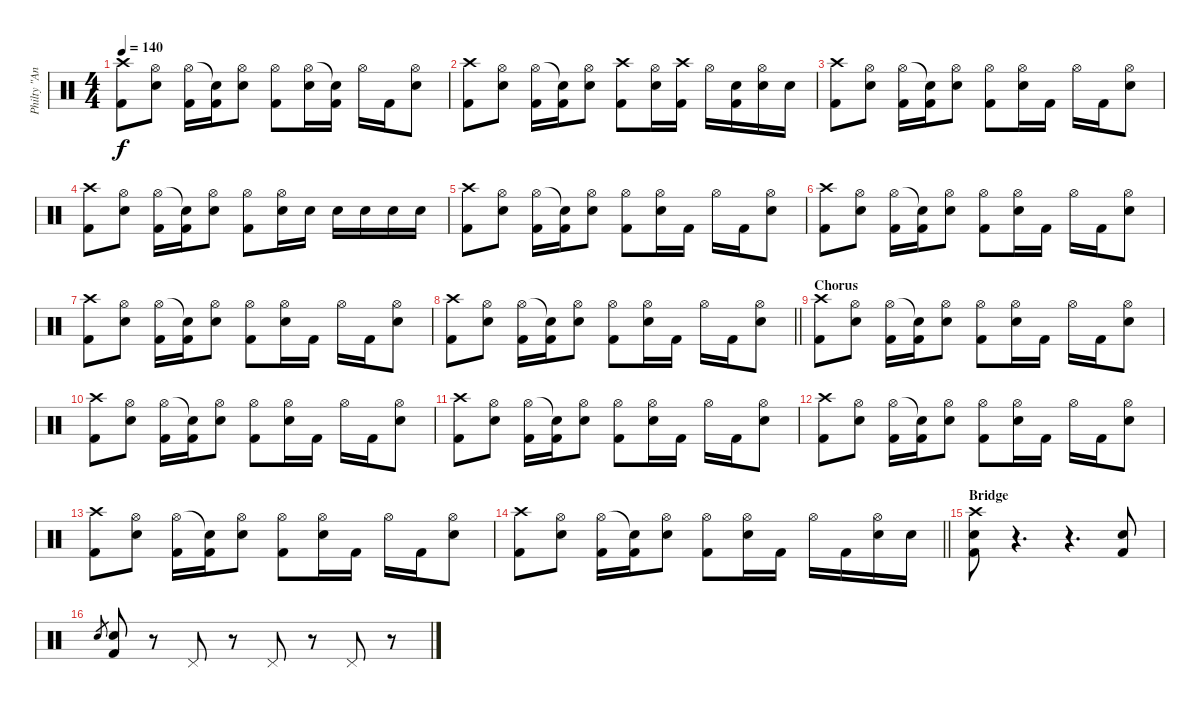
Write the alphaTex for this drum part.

\track ("Philty \"Animal\" Taylor (Drums)" "Philty \"An") {instrument percussion}
\staff {score}
\articulation defaults
\ts (4 4)
\tempo 140
\clef neutral
\ks c
("Crash high (hit)" "Kick (hit) 2").8{dy f} ("Hi-Hat (open)" "Electric Snare (hit)").8 ("Hi-Hat (open)" "Kick (hit) 2").16 ("Snare (hit)"{t} "Kick (hit) 2").16 ("Hi-Hat (open)" "Electric Snare (hit)").8 ("Hi-Hat (open)" "Kick (hit) 2").8 ("Hi-Hat (open)" "Electric Snare (hit)").16 ("Snare (hit)"{t} "Kick (hit) 2").16 "Hi-Hat (open)".16 "Kick (hit) 2".16 ("Hi-Hat (open)" "Electric Snare (hit)").8 |
("Crash high (hit)" "Kick (hit) 2").8 ("Hi-Hat (open)" "Electric Snare (hit)").8 ("Hi-Hat (open)" "Kick (hit) 2").16 ("Snare (hit)"{t} "Kick (hit) 2").16 ("Hi-Hat (open)" "Electric Snare (hit)").8 ("Crash high (hit)" "Kick (hit) 2").8 ("Hi-Hat (open)" "Electric Snare (hit)").16 ("Crash high (hit)" "Kick (hit) 2").16 "Hi-Hat (open)".16 ("Electric Snare (hit)" "Kick (hit) 2").16 ("Hi-Hat (open)" "Electric Snare (hit)").16 "Electric Snare (hit)".16 |
("Crash high (hit)" "Kick (hit) 2").8 ("Hi-Hat (open)" "Electric Snare (hit)").8 ("Hi-Hat (open)" "Kick (hit) 2").16 ("Snare (hit)"{t} "Kick (hit) 2").16 ("Hi-Hat (open)" "Electric Snare (hit)").8 ("Hi-Hat (open)" "Kick (hit) 2").8 ("Hi-Hat (open)" "Electric Snare (hit)").16 "Kick (hit) 2".16 "Hi-Hat (open)".16 "Kick (hit) 2".16 ("Hi-Hat (open)" "Electric Snare (hit)").8 |
("Crash high (hit)" "Kick (hit) 2").8 ("Hi-Hat (open)" "Electric Snare (hit)").8 ("Hi-Hat (open)" "Kick (hit) 2").16 ("Snare (hit)"{t} "Kick (hit) 2").16 ("Hi-Hat (open)" "Electric Snare (hit)").8 ("Hi-Hat (open)" "Kick (hit) 2").8 ("Hi-Hat (open)" "Electric Snare (hit)").16 "Electric Snare (hit)".16 "Electric Snare (hit)".16 "Electric Snare (hit)".16 "Electric Snare (hit)".16 "Electric Snare (hit)".16 |
("Crash high (hit)" "Kick (hit) 2").8 ("Hi-Hat (open)" "Electric Snare (hit)").8 ("Hi-Hat (open)" "Kick (hit) 2").16 ("Snare (hit)"{t} "Kick (hit) 2").16 ("Hi-Hat (open)" "Electric Snare (hit)").8 ("Hi-Hat (open)" "Kick (hit) 2").8 ("Hi-Hat (open)" "Electric Snare (hit)").16 "Kick (hit) 2".16 "Hi-Hat (open)".16 "Kick (hit) 2".16 ("Hi-Hat (open)" "Electric Snare (hit)").8 |
("Crash high (hit)" "Kick (hit) 2").8 ("Hi-Hat (open)" "Electric Snare (hit)").8 ("Hi-Hat (open)" "Kick (hit) 2").16 ("Snare (hit)"{t} "Kick (hit) 2").16 ("Hi-Hat (open)" "Electric Snare (hit)").8 ("Hi-Hat (open)" "Kick (hit) 2").8 ("Hi-Hat (open)" "Electric Snare (hit)").16 "Kick (hit) 2".16 "Hi-Hat (open)".16 "Kick (hit) 2".16 ("Hi-Hat (open)" "Electric Snare (hit)").8 |
("Crash high (hit)" "Kick (hit) 2").8 ("Hi-Hat (open)" "Electric Snare (hit)").8 ("Hi-Hat (open)" "Kick (hit) 2").16 ("Snare (hit)"{t} "Kick (hit) 2").16 ("Hi-Hat (open)" "Electric Snare (hit)").8 ("Hi-Hat (open)" "Kick (hit) 2").8 ("Hi-Hat (open)" "Electric Snare (hit)").16 "Kick (hit) 2".16 "Hi-Hat (open)".16 "Kick (hit) 2".16 ("Hi-Hat (open)" "Electric Snare (hit)").8 |
\barLineRight lightlight
("Crash high (hit)" "Kick (hit) 2").8 ("Hi-Hat (open)" "Electric Snare (hit)").8 ("Hi-Hat (open)" "Kick (hit) 2").16 ("Snare (hit)"{t} "Kick (hit) 2").16 ("Hi-Hat (open)" "Electric Snare (hit)").8 ("Hi-Hat (open)" "Kick (hit) 2").8 ("Hi-Hat (open)" "Electric Snare (hit)").16 "Kick (hit) 2".16 "Hi-Hat (open)".16 "Kick (hit) 2".16 ("Hi-Hat (open)" "Electric Snare (hit)").8 |
\section ("" "Chorus")
("Crash high (hit)" "Kick (hit) 2").8 ("Hi-Hat (open)" "Electric Snare (hit)").8 ("Hi-Hat (open)" "Kick (hit) 2").16 ("Snare (hit)"{t} "Kick (hit) 2").16 ("Hi-Hat (open)" "Electric Snare (hit)").8 ("Hi-Hat (open)" "Kick (hit) 2").8 ("Hi-Hat (open)" "Electric Snare (hit)").16 "Kick (hit) 2".16 "Hi-Hat (open)".16 "Kick (hit) 2".16 ("Hi-Hat (open)" "Electric Snare (hit)").8 |
("Crash high (hit)" "Kick (hit) 2").8 ("Hi-Hat (open)" "Electric Snare (hit)").8 ("Hi-Hat (open)" "Kick (hit) 2").16 ("Snare (hit)"{t} "Kick (hit) 2").16 ("Hi-Hat (open)" "Electric Snare (hit)").8 ("Hi-Hat (open)" "Kick (hit) 2").8 ("Hi-Hat (open)" "Electric Snare (hit)").16 "Kick (hit) 2".16 "Hi-Hat (open)".16 "Kick (hit) 2".16 ("Hi-Hat (open)" "Electric Snare (hit)").8 |
("Crash high (hit)" "Kick (hit) 2").8 ("Hi-Hat (open)" "Electric Snare (hit)").8 ("Hi-Hat (open)" "Kick (hit) 2").16 ("Snare (hit)"{t} "Kick (hit) 2").16 ("Hi-Hat (open)" "Electric Snare (hit)").8 ("Hi-Hat (open)" "Kick (hit) 2").8 ("Hi-Hat (open)" "Electric Snare (hit)").16 "Kick (hit) 2".16 "Hi-Hat (open)".16 "Kick (hit) 2".16 ("Hi-Hat (open)" "Electric Snare (hit)").8 |
("Crash high (hit)" "Kick (hit) 2").8 ("Hi-Hat (open)" "Electric Snare (hit)").8 ("Hi-Hat (open)" "Kick (hit) 2").16 ("Snare (hit)"{t} "Kick (hit) 2").16 ("Hi-Hat (open)" "Electric Snare (hit)").8 ("Hi-Hat (open)" "Kick (hit) 2").8 ("Hi-Hat (open)" "Electric Snare (hit)").16 "Kick (hit) 2".16 "Hi-Hat (open)".16 "Kick (hit) 2".16 ("Hi-Hat (open)" "Electric Snare (hit)").8 |
("Crash high (hit)" "Kick (hit) 2").8 ("Hi-Hat (open)" "Electric Snare (hit)").8 ("Hi-Hat (open)" "Kick (hit) 2").16 ("Snare (hit)"{t} "Kick (hit) 2").16 ("Hi-Hat (open)" "Electric Snare (hit)").8 ("Hi-Hat (open)" "Kick (hit) 2").8 ("Hi-Hat (open)" "Electric Snare (hit)").16 "Kick (hit) 2".16 "Hi-Hat (open)".16 "Kick (hit) 2".16 ("Hi-Hat (open)" "Electric Snare (hit)").8 |
\barLineRight lightlight
("Crash high (hit)" "Kick (hit) 2").8 ("Hi-Hat (open)" "Snare (hit) 2").8 ("Hi-Hat (open)" "Kick (hit) 2").16 ("Snare (hit)"{t} "Kick (hit) 2").16 ("Hi-Hat (open)" "Snare (hit) 2").8 ("Hi-Hat (open)" "Kick (hit) 2").8 ("Hi-Hat (open)" "Electric Snare (hit)").16 "Kick (hit) 2".16 "Hi-Hat (open)".16 "Kick (hit) 2".16 ("Hi-Hat (open)" "Electric Snare (hit)").16 "Electric Snare (hit)".16 |
\section ("" "Bridge")
("Crash high (hit)" "Electric Snare (hit)" "Kick (hit) 2").8 r.4{d} r.4{d} ("Electric Snare (hit)" "Kick (hit) 2").8 |
"Electric Snare (hit)".8{gr} ("Electric Snare (hit)" "Kick (hit) 2").8 r.8 "Pedal Hi-Hat (hit)".8 r.8 "Pedal Hi-Hat (hit)".8 r.8 "Pedal Hi-Hat (hit)".8 r.8
